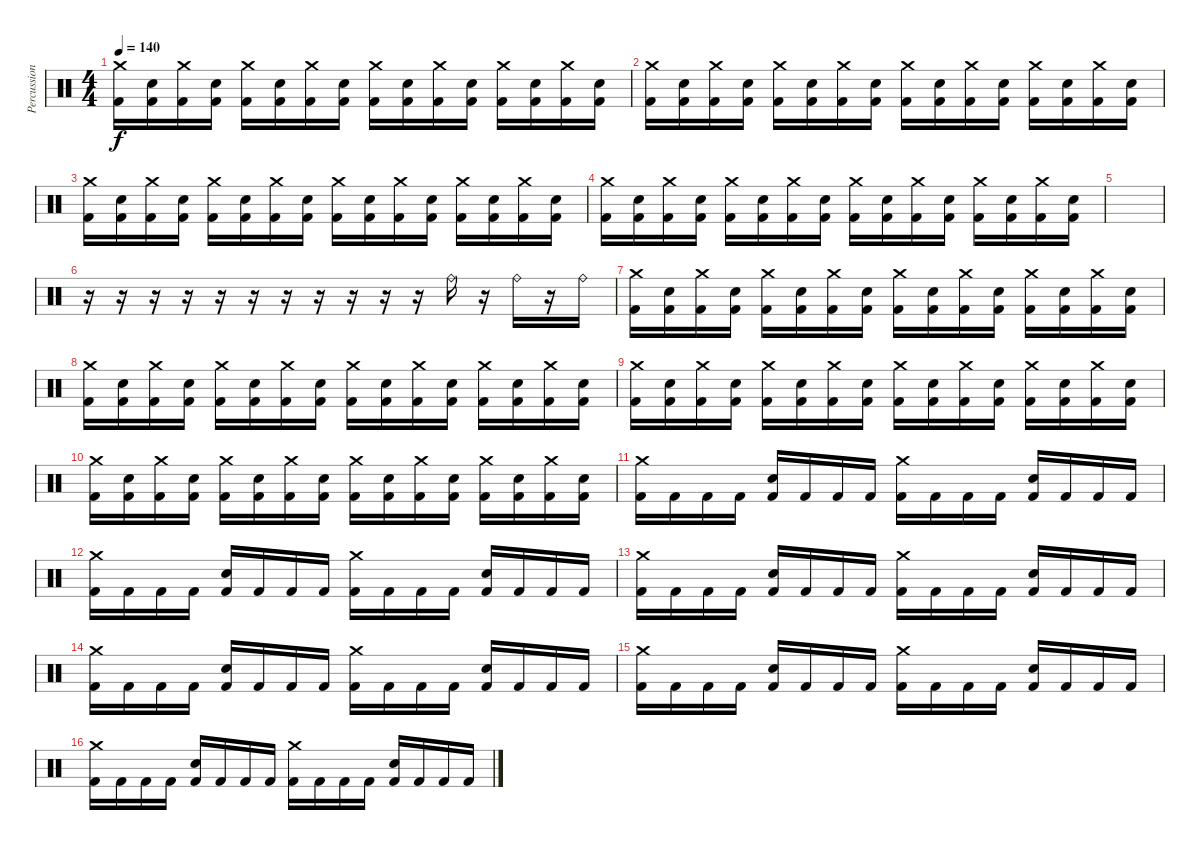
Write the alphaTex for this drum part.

\track ("Percussions" "Percussion") {instrument percussion}
\staff {score}
\articulation defaults
\ts (4 4)
\tempo 140
\clef neutral
\ks c
("Crash medium (hit)" "Kick (hit) 2").16{dy f} ("Electric Snare (hit)" "Kick (hit) 2").16 ("Crash medium (hit)" "Kick (hit) 2").16 ("Electric Snare (hit)" "Kick (hit) 2").16 ("Crash medium (hit)" "Kick (hit) 2").16 ("Electric Snare (hit)" "Kick (hit) 2").16 ("Crash medium (hit)" "Kick (hit) 2").16 ("Electric Snare (hit)" "Kick (hit) 2").16 ("Crash medium (hit)" "Kick (hit) 2").16 ("Electric Snare (hit)" "Kick (hit) 2").16 ("Crash medium (hit)" "Kick (hit) 2").16 ("Electric Snare (hit)" "Kick (hit) 2").16 ("Crash medium (hit)" "Kick (hit) 2").16 ("Electric Snare (hit)" "Kick (hit) 2").16 ("Crash medium (hit)" "Kick (hit) 2").16 ("Electric Snare (hit)" "Kick (hit) 2").16 |
("Crash medium (hit)" "Kick (hit) 2").16 ("Electric Snare (hit)" "Kick (hit) 2").16 ("Crash medium (hit)" "Kick (hit) 2").16 ("Electric Snare (hit)" "Kick (hit) 2").16 ("Crash medium (hit)" "Kick (hit) 2").16 ("Electric Snare (hit)" "Kick (hit) 2").16 ("Crash medium (hit)" "Kick (hit) 2").16 ("Electric Snare (hit)" "Kick (hit) 2").16 ("Crash medium (hit)" "Kick (hit) 2").16 ("Electric Snare (hit)" "Kick (hit) 2").16 ("Crash medium (hit)" "Kick (hit) 2").16 ("Electric Snare (hit)" "Kick (hit) 2").16 ("Crash medium (hit)" "Kick (hit) 2").16 ("Electric Snare (hit)" "Kick (hit) 2").16 ("Crash medium (hit)" "Kick (hit) 2").16 ("Electric Snare (hit)" "Kick (hit) 2").16 |
("Crash medium (hit)" "Kick (hit) 2").16 ("Electric Snare (hit)" "Kick (hit) 2").16 ("Crash medium (hit)" "Kick (hit) 2").16 ("Electric Snare (hit)" "Kick (hit) 2").16 ("Crash medium (hit)" "Kick (hit) 2").16 ("Electric Snare (hit)" "Kick (hit) 2").16 ("Crash medium (hit)" "Kick (hit) 2").16 ("Electric Snare (hit)" "Kick (hit) 2").16 ("Crash medium (hit)" "Kick (hit) 2").16 ("Electric Snare (hit)" "Kick (hit) 2").16 ("Crash medium (hit)" "Kick (hit) 2").16 ("Electric Snare (hit)" "Kick (hit) 2").16 ("Crash medium (hit)" "Kick (hit) 2").16 ("Electric Snare (hit)" "Kick (hit) 2").16 ("Crash medium (hit)" "Kick (hit) 2").16 ("Electric Snare (hit)" "Kick (hit) 2").16 |
("Crash medium (hit)" "Kick (hit) 2").16 ("Electric Snare (hit)" "Kick (hit) 2").16 ("Crash medium (hit)" "Kick (hit) 2").16 ("Electric Snare (hit)" "Kick (hit) 2").16 ("Crash medium (hit)" "Kick (hit) 2").16 ("Electric Snare (hit)" "Kick (hit) 2").16 ("Crash medium (hit)" "Kick (hit) 2").16 ("Electric Snare (hit)" "Kick (hit) 2").16 ("Crash medium (hit)" "Kick (hit) 2").16 ("Electric Snare (hit)" "Kick (hit) 2").16 ("Crash medium (hit)" "Kick (hit) 2").16 ("Electric Snare (hit)" "Kick (hit) 2").16 ("Crash medium (hit)" "Kick (hit) 2").16 ("Electric Snare (hit)" "Kick (hit) 2").16 ("Crash medium (hit)" "Kick (hit) 2").16 ("Electric Snare (hit)" "Kick (hit) 2").16 |
|
r.16 r.16 r.16 r.16 r.16 r.16 r.16 r.16 r.16 r.16 r.16 "Ride (bell)".16 r.16 "Ride (bell)".16 r.16 "Ride (bell)".16 |
("Crash medium (hit)" "Kick (hit) 2").16 ("Electric Snare (hit)" "Kick (hit) 2").16 ("Crash medium (hit)" "Kick (hit) 2").16 ("Electric Snare (hit)" "Kick (hit) 2").16 ("Crash medium (hit)" "Kick (hit) 2").16 ("Electric Snare (hit)" "Kick (hit) 2").16 ("Crash medium (hit)" "Kick (hit) 2").16 ("Electric Snare (hit)" "Kick (hit) 2").16 ("Crash medium (hit)" "Kick (hit) 2").16 ("Electric Snare (hit)" "Kick (hit) 2").16 ("Crash medium (hit)" "Kick (hit) 2").16 ("Electric Snare (hit)" "Kick (hit) 2").16 ("Crash medium (hit)" "Kick (hit) 2").16 ("Electric Snare (hit)" "Kick (hit) 2").16 ("Crash medium (hit)" "Kick (hit) 2").16 ("Electric Snare (hit)" "Kick (hit) 2").16 |
("Crash medium (hit)" "Kick (hit) 2").16 ("Electric Snare (hit)" "Kick (hit) 2").16 ("Crash medium (hit)" "Kick (hit) 2").16 ("Electric Snare (hit)" "Kick (hit) 2").16 ("Crash medium (hit)" "Kick (hit) 2").16 ("Electric Snare (hit)" "Kick (hit) 2").16 ("Crash medium (hit)" "Kick (hit) 2").16 ("Electric Snare (hit)" "Kick (hit) 2").16 ("Crash medium (hit)" "Kick (hit) 2").16 ("Electric Snare (hit)" "Kick (hit) 2").16 ("Crash medium (hit)" "Kick (hit) 2").16 ("Electric Snare (hit)" "Kick (hit) 2").16 ("Crash medium (hit)" "Kick (hit) 2").16 ("Electric Snare (hit)" "Kick (hit) 2").16 ("Crash medium (hit)" "Kick (hit) 2").16 ("Electric Snare (hit)" "Kick (hit) 2").16 |
("Crash medium (hit)" "Kick (hit) 2").16 ("Electric Snare (hit)" "Kick (hit) 2").16 ("Crash medium (hit)" "Kick (hit) 2").16 ("Electric Snare (hit)" "Kick (hit) 2").16 ("Crash medium (hit)" "Kick (hit) 2").16 ("Electric Snare (hit)" "Kick (hit) 2").16 ("Crash medium (hit)" "Kick (hit) 2").16 ("Electric Snare (hit)" "Kick (hit) 2").16 ("Crash medium (hit)" "Kick (hit) 2").16 ("Electric Snare (hit)" "Kick (hit) 2").16 ("Crash medium (hit)" "Kick (hit) 2").16 ("Electric Snare (hit)" "Kick (hit) 2").16 ("Crash medium (hit)" "Kick (hit) 2").16 ("Electric Snare (hit)" "Kick (hit) 2").16 ("Crash medium (hit)" "Kick (hit) 2").16 ("Electric Snare (hit)" "Kick (hit) 2").16 |
("Crash medium (hit)" "Kick (hit) 2").16 ("Electric Snare (hit)" "Kick (hit) 2").16 ("Crash medium (hit)" "Kick (hit) 2").16 ("Electric Snare (hit)" "Kick (hit) 2").16 ("Crash medium (hit)" "Kick (hit) 2").16 ("Electric Snare (hit)" "Kick (hit) 2").16 ("Crash medium (hit)" "Kick (hit) 2").16 ("Electric Snare (hit)" "Kick (hit) 2").16 ("Crash medium (hit)" "Kick (hit) 2").16 ("Electric Snare (hit)" "Kick (hit) 2").16 ("Crash medium (hit)" "Kick (hit) 2").16 ("Electric Snare (hit)" "Kick (hit) 2").16 ("Crash medium (hit)" "Kick (hit) 2").16 ("Electric Snare (hit)" "Kick (hit) 2").16 ("Crash medium (hit)" "Kick (hit) 2").16 ("Electric Snare (hit)" "Kick (hit) 2").16 |
("Crash medium (hit)" "Kick (hit) 2").16 "Kick (hit) 2".16 "Kick (hit) 2".16 "Kick (hit) 2".16 ("Electric Snare (hit)" "Kick (hit) 2").16 "Kick (hit) 2".16 "Kick (hit) 2".16 "Kick (hit) 2".16 ("Crash medium (hit)" "Kick (hit) 2").16 "Kick (hit) 2".16 "Kick (hit) 2".16 "Kick (hit) 2".16 ("Electric Snare (hit)" "Kick (hit) 2").16 "Kick (hit) 2".16 "Kick (hit) 2".16 "Kick (hit) 2".16 |
("Crash medium (hit)" "Kick (hit) 2").16 "Kick (hit) 2".16 "Kick (hit) 2".16 "Kick (hit) 2".16 ("Electric Snare (hit)" "Kick (hit) 2").16 "Kick (hit) 2".16 "Kick (hit) 2".16 "Kick (hit) 2".16 ("Crash medium (hit)" "Kick (hit) 2").16 "Kick (hit) 2".16 "Kick (hit) 2".16 "Kick (hit) 2".16 ("Electric Snare (hit)" "Kick (hit) 2").16 "Kick (hit) 2".16 "Kick (hit) 2".16 "Kick (hit) 2".16 |
("Crash medium (hit)" "Kick (hit) 2").16 "Kick (hit) 2".16 "Kick (hit) 2".16 "Kick (hit) 2".16 ("Electric Snare (hit)" "Kick (hit) 2").16 "Kick (hit) 2".16 "Kick (hit) 2".16 "Kick (hit) 2".16 ("Crash medium (hit)" "Kick (hit) 2").16 "Kick (hit) 2".16 "Kick (hit) 2".16 "Kick (hit) 2".16 ("Electric Snare (hit)" "Kick (hit) 2").16 "Kick (hit) 2".16 "Kick (hit) 2".16 "Kick (hit) 2".16 |
("Crash medium (hit)" "Kick (hit) 2").16 "Kick (hit) 2".16 "Kick (hit) 2".16 "Kick (hit) 2".16 ("Electric Snare (hit)" "Kick (hit) 2").16 "Kick (hit) 2".16 "Kick (hit) 2".16 "Kick (hit) 2".16 ("Crash medium (hit)" "Kick (hit) 2").16 "Kick (hit) 2".16 "Kick (hit) 2".16 "Kick (hit) 2".16 ("Electric Snare (hit)" "Kick (hit) 2").16 "Kick (hit) 2".16 "Kick (hit) 2".16 "Kick (hit) 2".16 |
("Crash medium (hit)" "Kick (hit) 2").16 "Kick (hit) 2".16 "Kick (hit) 2".16 "Kick (hit) 2".16 ("Electric Snare (hit)" "Kick (hit) 2").16 "Kick (hit) 2".16 "Kick (hit) 2".16 "Kick (hit) 2".16 ("Crash medium (hit)" "Kick (hit) 2").16 "Kick (hit) 2".16 "Kick (hit) 2".16 "Kick (hit) 2".16 ("Electric Snare (hit)" "Kick (hit) 2").16 "Kick (hit) 2".16 "Kick (hit) 2".16 "Kick (hit) 2".16 |
("Crash medium (hit)" "Kick (hit) 2").16 "Kick (hit) 2".16 "Kick (hit) 2".16 "Kick (hit) 2".16 ("Electric Snare (hit)" "Kick (hit) 2").16 "Kick (hit) 2".16 "Kick (hit) 2".16 "Kick (hit) 2".16 ("Crash medium (hit)" "Kick (hit) 2").16 "Kick (hit) 2".16 "Kick (hit) 2".16 "Kick (hit) 2".16 ("Electric Snare (hit)" "Kick (hit) 2").16 "Kick (hit) 2".16 "Kick (hit) 2".16 "Kick (hit) 2".16
